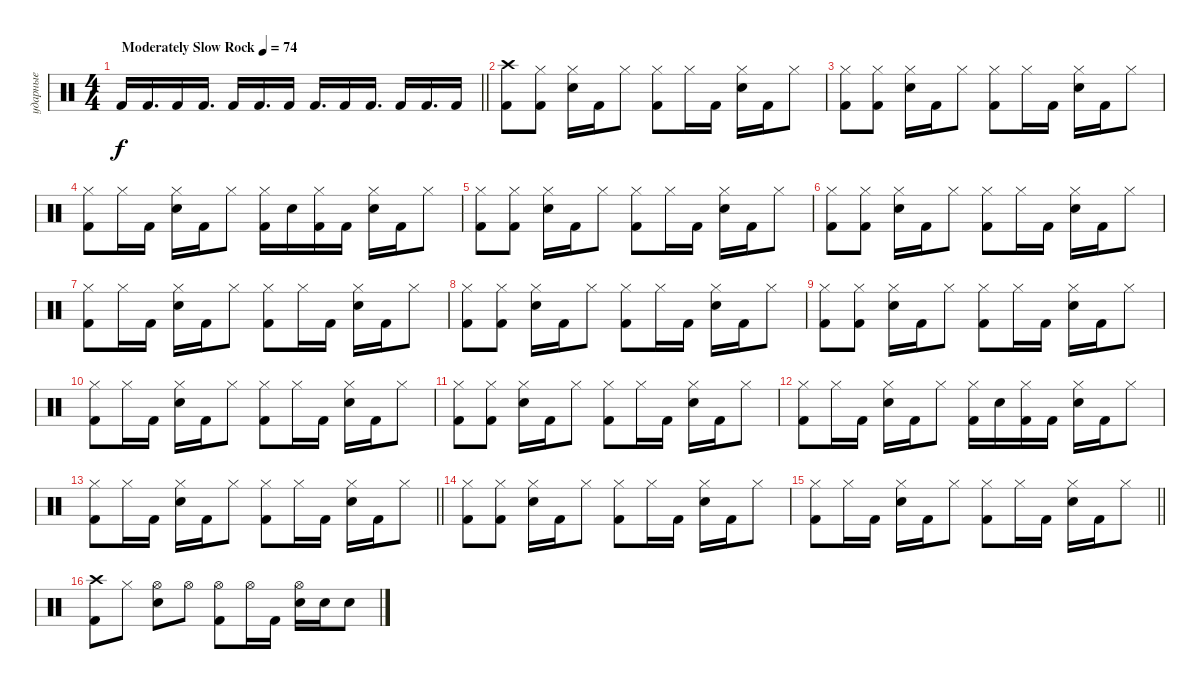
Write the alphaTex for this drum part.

\track ("ударные" "ударные") {instrument percussion}
\staff {score}
\articulation defaults
\ts (4 4)
\tempo (74 "Moderately Slow Rock")
\clef neutral
\barLineRight lightlight
\ks aminor "Kick (hit) 2".16{dy f} "Kick (hit) 2".16{d} "Kick (hit) 2".16 "Kick (hit) 2".16{d} "Kick (hit) 2".16 "Kick (hit) 2".16{d} "Kick (hit) 2".16 "Kick (hit) 2".16{d} "Kick (hit) 2".16 "Kick (hit) 2".16{d} "Kick (hit) 2".16 "Kick (hit) 2".16{d} "Kick (hit) 2".16
|
\section ("" "")
("Kick (hit) 2" "Crash high (hit)").8 ("Kick (hit) 2" "Hi-Hat (closed)").8 ("Snare (hit) 2" "Hi-Hat (closed)").16 "Kick (hit) 2".16 "Hi-Hat (closed)".8 ("Kick (hit) 2" "Hi-Hat (closed)").8 "Hi-Hat (closed)".16 "Kick (hit) 2".16 ("Snare (hit) 2" "Hi-Hat (closed)").16 "Kick (hit) 2".16 "Hi-Hat (closed)".8 |
("Kick (hit) 2" "Hi-Hat (closed)").8 ("Kick (hit) 2" "Hi-Hat (closed)").8 ("Snare (hit) 2" "Hi-Hat (closed)").16 "Kick (hit) 2".16 "Hi-Hat (closed)".8 ("Kick (hit) 2" "Hi-Hat (closed)").8 "Hi-Hat (closed)".16 "Kick (hit) 2".16 ("Snare (hit) 2" "Hi-Hat (closed)").16 "Kick (hit) 2".16 "Hi-Hat (closed)".8 |
("Kick (hit) 2" "Hi-Hat (closed)").8 "Hi-Hat (closed)".16 "Kick (hit) 2".16 ("Snare (hit) 2" "Hi-Hat (closed)").16 "Kick (hit) 2".16 "Hi-Hat (closed)".8 ("Kick (hit) 2" "Hi-Hat (closed)").16 "Snare (hit) 2".16 ("Kick (hit) 2" "Hi-Hat (closed)").16 "Kick (hit) 2".16 ("Snare (hit) 2" "Hi-Hat (closed)").16 "Kick (hit) 2".16 "Hi-Hat (closed)".8 |
("Kick (hit) 2" "Hi-Hat (closed)").8 ("Kick (hit) 2" "Hi-Hat (closed)").8 ("Snare (hit) 2" "Hi-Hat (closed)").16 "Kick (hit) 2".16 "Hi-Hat (closed)".8 ("Kick (hit) 2" "Hi-Hat (closed)").8 "Hi-Hat (closed)".16 "Kick (hit) 2".16 ("Snare (hit) 2" "Hi-Hat (closed)").16 "Kick (hit) 2".16 "Hi-Hat (closed)".8 |
("Kick (hit) 2" "Hi-Hat (closed)").8 ("Kick (hit) 2" "Hi-Hat (closed)").8 ("Snare (hit) 2" "Hi-Hat (closed)").16 "Kick (hit) 2".16 "Hi-Hat (closed)".8 ("Kick (hit) 2" "Hi-Hat (closed)").8 "Hi-Hat (closed)".16 "Kick (hit) 2".16 ("Snare (hit) 2" "Hi-Hat (closed)").16 "Kick (hit) 2".16 "Hi-Hat (closed)".8 |
("Kick (hit) 2" "Hi-Hat (closed)").8 "Hi-Hat (closed)".16 "Kick (hit) 2".16 ("Snare (hit) 2" "Hi-Hat (closed)").16 "Kick (hit) 2".16 "Hi-Hat (closed)".8 ("Kick (hit) 2" "Hi-Hat (closed)").8 "Hi-Hat (closed)".16 "Kick (hit) 2".16 ("Snare (hit) 2" "Hi-Hat (closed)").16 "Kick (hit) 2".16 "Hi-Hat (closed)".8 |
("Kick (hit) 2" "Hi-Hat (closed)").8 ("Kick (hit) 2" "Hi-Hat (closed)").8 ("Snare (hit) 2" "Hi-Hat (closed)").16 "Kick (hit) 2".16 "Hi-Hat (closed)".8 ("Kick (hit) 2" "Hi-Hat (closed)").8 "Hi-Hat (closed)".16 "Kick (hit) 2".16 ("Snare (hit) 2" "Hi-Hat (closed)").16 "Kick (hit) 2".16 "Hi-Hat (closed)".8 |
("Kick (hit) 2" "Hi-Hat (closed)").8 ("Kick (hit) 2" "Hi-Hat (closed)").8 ("Snare (hit) 2" "Hi-Hat (closed)").16 "Kick (hit) 2".16 "Hi-Hat (closed)".8 ("Kick (hit) 2" "Hi-Hat (closed)").8 "Hi-Hat (closed)".16 "Kick (hit) 2".16 ("Snare (hit) 2" "Hi-Hat (closed)").16 "Kick (hit) 2".16 "Hi-Hat (closed)".8 |
("Kick (hit) 2" "Hi-Hat (closed)").8 "Hi-Hat (closed)".16 "Kick (hit) 2".16 ("Snare (hit) 2" "Hi-Hat (closed)").16 "Kick (hit) 2".16 "Hi-Hat (closed)".8 ("Kick (hit) 2" "Hi-Hat (closed)").8 "Hi-Hat (closed)".16 "Kick (hit) 2".16 ("Snare (hit) 2" "Hi-Hat (closed)").16 "Kick (hit) 2".16 "Hi-Hat (closed)".8 |
("Kick (hit) 2" "Hi-Hat (closed)").8 ("Kick (hit) 2" "Hi-Hat (closed)").8 ("Snare (hit) 2" "Hi-Hat (closed)").16 "Kick (hit) 2".16 "Hi-Hat (closed)".8 ("Kick (hit) 2" "Hi-Hat (closed)").8 "Hi-Hat (closed)".16 "Kick (hit) 2".16 ("Snare (hit) 2" "Hi-Hat (closed)").16 "Kick (hit) 2".16 "Hi-Hat (closed)".8 |
("Kick (hit) 2" "Hi-Hat (closed)").8 "Hi-Hat (closed)".16 "Kick (hit) 2".16 ("Snare (hit) 2" "Hi-Hat (closed)").16 "Kick (hit) 2".16 "Hi-Hat (closed)".8 ("Kick (hit) 2" "Hi-Hat (closed)").16 "Snare (hit) 2".16 ("Kick (hit) 2" "Hi-Hat (closed)").16 "Kick (hit) 2".16 ("Snare (hit) 2" "Hi-Hat (closed)").16 "Kick (hit) 2".16 "Hi-Hat (closed)".8 |
\barLineRight lightlight
("Kick (hit) 2" "Hi-Hat (closed)").8 "Hi-Hat (closed)".16 "Kick (hit) 2".16 ("Snare (hit) 2" "Hi-Hat (closed)").16 "Kick (hit) 2".16 "Hi-Hat (closed)".8 ("Kick (hit) 2" "Hi-Hat (closed)").8 "Hi-Hat (closed)".16 "Kick (hit) 2".16 ("Snare (hit) 2" "Hi-Hat (closed)").16 "Kick (hit) 2".16 "Hi-Hat (closed)".8 |
\section ("" "")
("Kick (hit) 2" "Hi-Hat (closed)").8 ("Kick (hit) 2" "Hi-Hat (closed)").8 ("Snare (hit) 2" "Hi-Hat (closed)").16 "Kick (hit) 2".16 "Hi-Hat (closed)".8 ("Kick (hit) 2" "Hi-Hat (closed)").8 "Hi-Hat (closed)".16 "Kick (hit) 2".16 ("Snare (hit) 2" "Hi-Hat (closed)").16 "Kick (hit) 2".16 "Hi-Hat (closed)".8 |
\barLineRight lightlight
("Kick (hit) 2" "Hi-Hat (closed)").8 "Hi-Hat (closed)".16 "Kick (hit) 2".16 ("Snare (hit) 2" "Hi-Hat (closed)").16 "Kick (hit) 2".16 "Hi-Hat (closed)".8 ("Kick (hit) 2" "Hi-Hat (closed)").8 "Hi-Hat (closed)".16 "Kick (hit) 2".16 ("Snare (hit) 2" "Hi-Hat (closed)").16 "Kick (hit) 2".16 "Hi-Hat (closed)".8 |
\section ("" "")
("Kick (hit) 2" "Crash high (hit)").8 "Hi-Hat (closed)".8 ("Snare (hit) 2" "Hi-Hat (open)").8 "Hi-Hat (open)".8 ("Kick (hit) 2" "Hi-Hat (open)").8 "Hi-Hat (open)".16 "Kick (hit) 2".16 ("Snare (hit) 2" "Hi-Hat (open)").16 "Snare (hit) 2".16 "Snare (hit) 2".8
